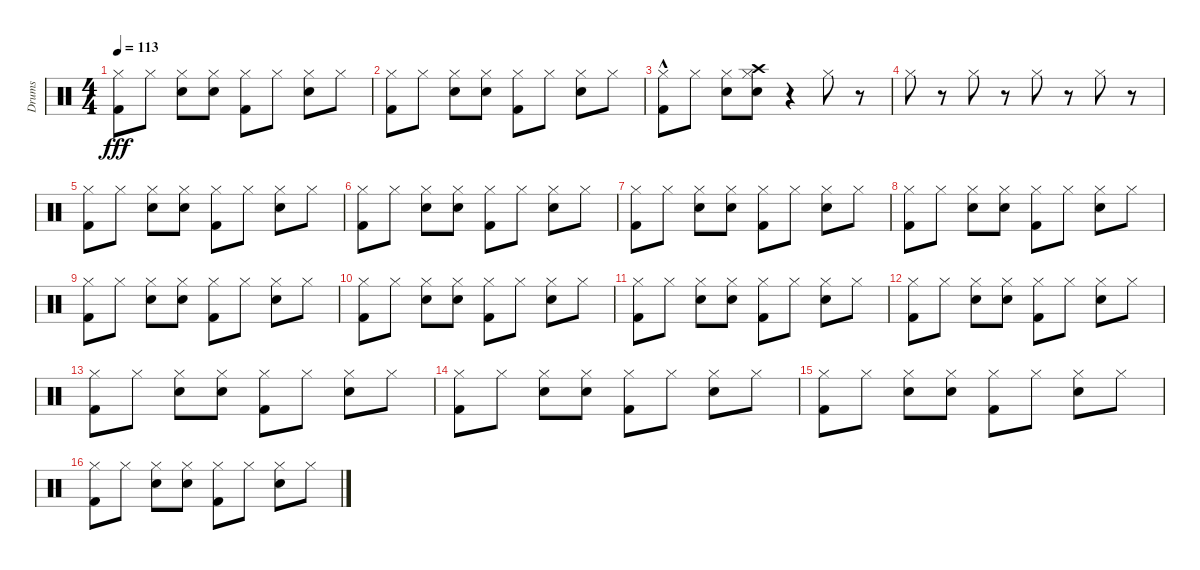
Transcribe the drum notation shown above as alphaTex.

\track ("Drums" "Drums") {instrument percussion}
\staff {score}
\articulation defaults
\ts (4 4)
\tempo 113
\clef neutral
\ks c
("Hi-Hat (closed)" "Kick (hit) 2").8{dy fff} "Hi-Hat (closed)".8 ("Hi-Hat (closed)" "Electric Snare (hit)").8 ("Hi-Hat (closed)" "Electric Snare (hit)").8 ("Hi-Hat (closed)" "Kick (hit) 2").8 "Hi-Hat (closed)".8 ("Hi-Hat (closed)" "Electric Snare (hit)").8 "Hi-Hat (closed)".8 |
("Hi-Hat (closed)" "Kick (hit) 2").8 "Hi-Hat (closed)".8 ("Hi-Hat (closed)" "Electric Snare (hit)").8 ("Hi-Hat (closed)" "Electric Snare (hit)").8 ("Hi-Hat (closed)" "Kick (hit) 2").8 "Hi-Hat (closed)".8 ("Hi-Hat (closed)" "Electric Snare (hit)").8 "Hi-Hat (closed)".8 |
("Hi-Hat (closed)" "Kick (hit) 2"{hac}).8 "Hi-Hat (closed)".8 ("Hi-Hat (closed)" "Electric Snare (hit)").8 ("Hi-Hat (closed)" "Crash high (hit)" "Electric Snare (hit)").8 r.4 "Hi-Hat (closed)".8 r.8 |
"Hi-Hat (closed)".8 r.8 "Hi-Hat (closed)".8 r.8 "Hi-Hat (closed)".8 r.8 "Hi-Hat (closed)".8 r.8 |
("Hi-Hat (closed)" "Kick (hit) 2").8 "Hi-Hat (closed)".8 ("Hi-Hat (closed)" "Electric Snare (hit)").8 ("Hi-Hat (closed)" "Electric Snare (hit)").8 ("Hi-Hat (closed)" "Kick (hit) 2").8 "Hi-Hat (closed)".8 ("Hi-Hat (closed)" "Electric Snare (hit)").8 "Hi-Hat (closed)".8 |
("Hi-Hat (closed)" "Kick (hit) 2").8 "Hi-Hat (closed)".8 ("Hi-Hat (closed)" "Electric Snare (hit)").8 ("Hi-Hat (closed)" "Electric Snare (hit)").8 ("Hi-Hat (closed)" "Kick (hit) 2").8 "Hi-Hat (closed)".8 ("Hi-Hat (closed)" "Electric Snare (hit)").8 "Hi-Hat (closed)".8 |
("Hi-Hat (closed)" "Kick (hit) 2").8 "Hi-Hat (closed)".8 ("Hi-Hat (closed)" "Electric Snare (hit)").8 ("Hi-Hat (closed)" "Electric Snare (hit)").8 ("Hi-Hat (closed)" "Kick (hit) 2").8 "Hi-Hat (closed)".8 ("Hi-Hat (closed)" "Electric Snare (hit)").8 "Hi-Hat (closed)".8 |
("Hi-Hat (closed)" "Kick (hit) 2").8 "Hi-Hat (closed)".8 ("Hi-Hat (closed)" "Electric Snare (hit)").8 ("Hi-Hat (closed)" "Electric Snare (hit)").8 ("Hi-Hat (closed)" "Kick (hit) 2").8 "Hi-Hat (closed)".8 ("Hi-Hat (closed)" "Electric Snare (hit)").8 "Hi-Hat (closed)".8 |
("Hi-Hat (closed)" "Kick (hit) 2").8 "Hi-Hat (closed)".8 ("Hi-Hat (closed)" "Electric Snare (hit)").8 ("Hi-Hat (closed)" "Electric Snare (hit)").8 ("Hi-Hat (closed)" "Kick (hit) 2").8 "Hi-Hat (closed)".8 ("Hi-Hat (closed)" "Electric Snare (hit)").8 "Hi-Hat (closed)".8 |
("Hi-Hat (closed)" "Kick (hit) 2").8 "Hi-Hat (closed)".8 ("Hi-Hat (closed)" "Electric Snare (hit)").8 ("Hi-Hat (closed)" "Electric Snare (hit)").8 ("Hi-Hat (closed)" "Kick (hit) 2").8 "Hi-Hat (closed)".8 ("Hi-Hat (closed)" "Electric Snare (hit)").8 "Hi-Hat (closed)".8 |
("Hi-Hat (closed)" "Kick (hit) 2").8 "Hi-Hat (closed)".8 ("Hi-Hat (closed)" "Electric Snare (hit)").8 ("Hi-Hat (closed)" "Electric Snare (hit)").8 ("Hi-Hat (closed)" "Kick (hit) 2").8 "Hi-Hat (closed)".8 ("Hi-Hat (closed)" "Electric Snare (hit)").8 "Hi-Hat (closed)".8 |
("Hi-Hat (closed)" "Kick (hit) 2").8 "Hi-Hat (closed)".8 ("Hi-Hat (closed)" "Electric Snare (hit)").8 ("Hi-Hat (closed)" "Electric Snare (hit)").8 ("Hi-Hat (closed)" "Kick (hit) 2").8 "Hi-Hat (closed)".8 ("Hi-Hat (closed)" "Electric Snare (hit)").8 "Hi-Hat (closed)".8 |
("Hi-Hat (closed)" "Kick (hit) 2").8 "Hi-Hat (closed)".8 ("Hi-Hat (closed)" "Electric Snare (hit)").8 ("Hi-Hat (closed)" "Electric Snare (hit)").8 ("Hi-Hat (closed)" "Kick (hit) 2").8 "Hi-Hat (closed)".8 ("Hi-Hat (closed)" "Electric Snare (hit)").8 "Hi-Hat (closed)".8 |
("Hi-Hat (closed)" "Kick (hit) 2").8 "Hi-Hat (closed)".8 ("Hi-Hat (closed)" "Electric Snare (hit)").8 ("Hi-Hat (closed)" "Electric Snare (hit)").8 ("Hi-Hat (closed)" "Kick (hit) 2").8 "Hi-Hat (closed)".8 ("Hi-Hat (closed)" "Electric Snare (hit)").8 "Hi-Hat (closed)".8 |
("Hi-Hat (closed)" "Kick (hit) 2").8 "Hi-Hat (closed)".8 ("Hi-Hat (closed)" "Electric Snare (hit)").8 ("Hi-Hat (closed)" "Electric Snare (hit)").8 ("Hi-Hat (closed)" "Kick (hit) 2").8 "Hi-Hat (closed)".8 ("Hi-Hat (closed)" "Electric Snare (hit)").8 "Hi-Hat (closed)".8 |
("Hi-Hat (closed)" "Kick (hit) 2").8 "Hi-Hat (closed)".8 ("Hi-Hat (closed)" "Electric Snare (hit)").8 ("Hi-Hat (closed)" "Electric Snare (hit)").8 ("Hi-Hat (closed)" "Kick (hit) 2").8 "Hi-Hat (closed)".8 ("Hi-Hat (closed)" "Electric Snare (hit)").8 "Hi-Hat (closed)".8
